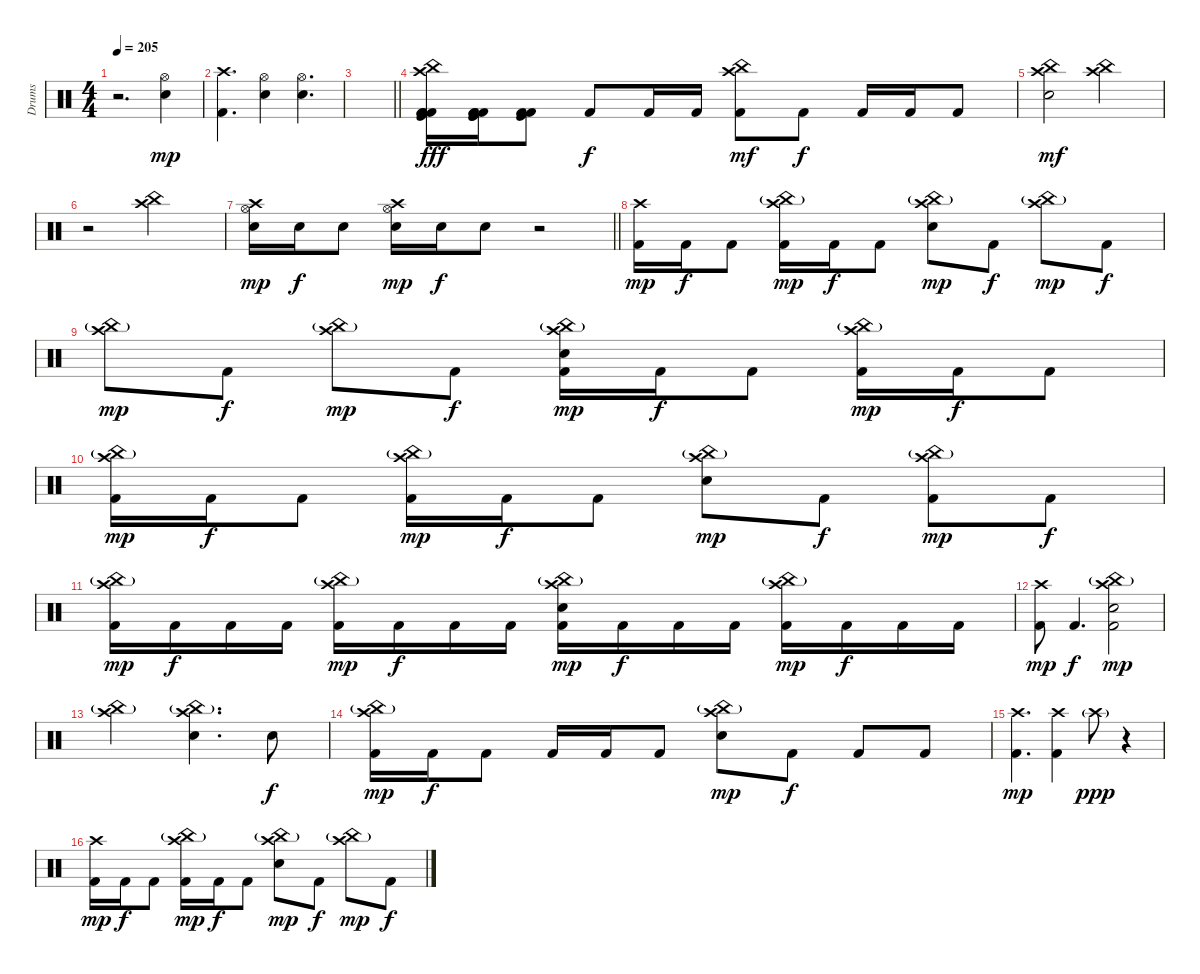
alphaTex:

\track ("Drums" "Drums") {instrument percussion}
\staff {score}
\articulation defaults
\ts (4 4)
\tempo 205
\clef neutral
\ks c
r.2{d dy mp} ("Hi-Hat (open)" "Electric Snare (hit)").4 |
("Crash high (hit)" "Kick (hit) 2").4{d} ("Hi-Hat (open)" "Electric Snare (hit)").4 ("Hi-Hat (open)" "Electric Snare (hit)").4{d} |
\barLineRight lightlight
|
("Crash high (hit)" "China (hit)" "Kick (hit) 2" "Kick (hit) 2" "Kick (hit)" "Kick (hit) 2").16{dy fff} ("Kick (hit)" "Kick (hit) 2" "Kick (hit) 2" "Kick (hit)" "Kick (hit) 2").16 ("Kick (hit) 2" "Kick (hit)" "Kick (hit) 2").8 "Kick (hit) 2".8{dy f} "Kick (hit) 2".16 "Kick (hit) 2".16 ("Crash high (hit)" "China (hit)" "Kick (hit) 2").8{dy mf} "Kick (hit) 2".8{dy f} "Kick (hit) 2".16 "Kick (hit) 2".16 "Kick (hit) 2".8 |
("Crash high (hit)" "China (hit)" "Electric Snare (hit)").2{dy mf} ("Crash high (hit)" "China (hit)").2 |
r.2 ("Crash high (hit)" "China (hit)").2 |
\barLineRight lightlight
("Crash high (hit)" "Hi-Hat (open)" "Electric Snare (hit)").16{dy mp} "Electric Snare (hit)".16{dy f} "Electric Snare (hit)".8 ("Crash high (hit)" "Hi-Hat (open)" "Electric Snare (hit)").16{dy mp} "Electric Snare (hit)".16{dy f} "Electric Snare (hit)".8 r.2 |
("Crash high (hit)" "Kick (hit) 2").16{dy mp} "Kick (hit) 2".16{dy f} "Kick (hit) 2".8 ("Crash high (hit)" "China (hit)"{g} "Kick (hit) 2").16{dy mp} "Kick (hit) 2".16{dy f} "Kick (hit) 2".8 ("Crash high (hit)" "China (hit)"{g} "Electric Snare (hit)").8{dy mp} "Kick (hit) 2".8{dy f} ("Crash high (hit)" "China (hit)"{g}).8{dy mp} "Kick (hit) 2".8{dy f} |
("Crash high (hit)" "China (hit)"{g}).8{dy mp} "Kick (hit) 2".8{dy f} ("Crash high (hit)" "China (hit)"{g}).8{dy mp} "Kick (hit) 2".8{dy f} ("Crash high (hit)" "China (hit)"{g} "Electric Snare (hit)" "Kick (hit) 2").16{dy mp} "Kick (hit) 2".16{dy f} "Kick (hit) 2".8 ("Crash high (hit)" "China (hit)"{g} "Kick (hit) 2").16{dy mp} "Kick (hit) 2".16{dy f} "Kick (hit) 2".8 |
("Crash high (hit)" "China (hit)"{g} "Kick (hit) 2").16{dy mp} "Kick (hit) 2".16{dy f} "Kick (hit) 2".8 ("Crash high (hit)" "China (hit)"{g} "Kick (hit) 2").16{dy mp} "Kick (hit) 2".16{dy f} "Kick (hit) 2".8 ("Crash high (hit)" "China (hit)"{g} "Electric Snare (hit)").8{dy mp} "Kick (hit) 2".8{dy f} ("Crash high (hit)" "China (hit)"{g} "Kick (hit) 2").8{dy mp} "Kick (hit) 2".8{dy f} |
("Crash high (hit)" "China (hit)"{g} "Kick (hit) 2").16{dy mp} "Kick (hit) 2".16{dy f} "Kick (hit) 2".16 "Kick (hit) 2".16 ("Crash high (hit)" "China (hit)"{g} "Kick (hit) 2").16{dy mp} "Kick (hit) 2".16{dy f} "Kick (hit) 2".16 "Kick (hit) 2".16 ("Crash high (hit)" "China (hit)"{g} "Electric Snare (hit)" "Kick (hit) 2").16{dy mp} "Kick (hit) 2".16{dy f} "Kick (hit) 2".16 "Kick (hit) 2".16 ("Crash high (hit)" "China (hit)"{g} "Kick (hit) 2").16{dy mp} "Kick (hit) 2".16{dy f} "Kick (hit) 2".16 "Kick (hit) 2".16 |
("Crash high (hit)" "Kick (hit) 2").8{dy mp} "Kick (hit) 2".4{d dy f} ("Crash high (hit)" "China (hit)"{g} "Electric Snare (hit)" "Kick (hit) 2").2{dy mp} |
("Crash high (hit)" "China (hit)"{g}).2 ("Crash high (hit)" "China (hit)"{g} "Electric Snare (hit)").4{d} "Electric Snare (hit)".8{dy f} |
("Crash high (hit)" "China (hit)"{g} "Kick (hit) 2").16{dy mp} "Kick (hit) 2".16{dy f} "Kick (hit) 2".8 "Kick (hit) 2".16 "Kick (hit) 2".16 "Kick (hit) 2".8 ("Crash high (hit)" "China (hit)"{g} "Electric Snare (hit)").8{dy mp} "Kick (hit) 2".8{dy f} "Kick (hit) 2".8 "Kick (hit) 2".8 |
("Crash high (hit)" "Kick (hit) 2").4{d dy mp} ("Crash high (hit)" "Kick (hit) 2").4 "Crash high (hit)"{g}.8{dy ppp} r.4 |
("Crash high (hit)" "Kick (hit) 2").16{dy mp} "Kick (hit) 2".16{dy f} "Kick (hit) 2".8 ("Crash high (hit)" "China (hit)"{g} "Kick (hit) 2").16{dy mp} "Kick (hit) 2".16{dy f} "Kick (hit) 2".8 ("Crash high (hit)" "China (hit)"{g} "Electric Snare (hit)").8{dy mp} "Kick (hit) 2".8{dy f} ("Crash high (hit)" "China (hit)"{g}).8{dy mp} "Kick (hit) 2".8{dy f}
